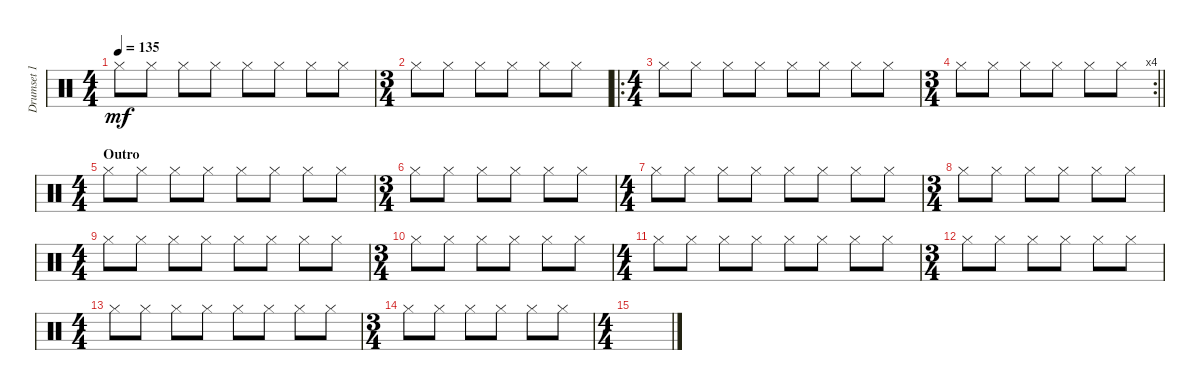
\track ("Drumset 1" "Drumset 1") {instrument percussion}
\staff {score}
\articulation defaults
\ts (4 4)
\tempo 135
\clef neutral
\ks c "Hi-Hat (closed)".8{dy mf} "Hi-Hat (closed)".8 "Hi-Hat (closed)".8 "Hi-Hat (closed)".8 "Hi-Hat (closed)".8 "Hi-Hat (closed)".8 "Hi-Hat (closed)".8 "Hi-Hat (closed)".8
|
\ts (3 4)
"Hi-Hat (closed)".8 "Hi-Hat (closed)".8 "Hi-Hat (closed)".8 "Hi-Hat (closed)".8 "Hi-Hat (closed)".8 "Hi-Hat (closed)".8 |
\ro
\ts (4 4)
"Hi-Hat (closed)".8 "Hi-Hat (closed)".8 "Hi-Hat (closed)".8 "Hi-Hat (closed)".8 "Hi-Hat (closed)".8 "Hi-Hat (closed)".8 "Hi-Hat (closed)".8 "Hi-Hat (closed)".8 |
\rc 4
\ts (3 4)
\barLineRight lightlight "Hi-Hat (closed)".8 "Hi-Hat (closed)".8 "Hi-Hat (closed)".8 "Hi-Hat (closed)".8 "Hi-Hat (closed)".8 "Hi-Hat (closed)".8
|
\ts (4 4)
\section ("" "Outro")
"Hi-Hat (closed)".8 "Hi-Hat (closed)".8 "Hi-Hat (closed)".8 "Hi-Hat (closed)".8 "Hi-Hat (closed)".8 "Hi-Hat (closed)".8 "Hi-Hat (closed)".8 "Hi-Hat (closed)".8 |
\ts (3 4)
"Hi-Hat (closed)".8 "Hi-Hat (closed)".8 "Hi-Hat (closed)".8 "Hi-Hat (closed)".8 "Hi-Hat (closed)".8 "Hi-Hat (closed)".8 |
\ts (4 4)
"Hi-Hat (closed)".8 "Hi-Hat (closed)".8 "Hi-Hat (closed)".8 "Hi-Hat (closed)".8 "Hi-Hat (closed)".8 "Hi-Hat (closed)".8 "Hi-Hat (closed)".8 "Hi-Hat (closed)".8 |
\ts (3 4)
"Hi-Hat (closed)".8 "Hi-Hat (closed)".8 "Hi-Hat (closed)".8 "Hi-Hat (closed)".8 "Hi-Hat (closed)".8 "Hi-Hat (closed)".8 |
\ts (4 4)
"Hi-Hat (closed)".8 "Hi-Hat (closed)".8 "Hi-Hat (closed)".8 "Hi-Hat (closed)".8 "Hi-Hat (closed)".8 "Hi-Hat (closed)".8 "Hi-Hat (closed)".8 "Hi-Hat (closed)".8 |
\ts (3 4)
"Hi-Hat (closed)".8 "Hi-Hat (closed)".8 "Hi-Hat (closed)".8 "Hi-Hat (closed)".8 "Hi-Hat (closed)".8 "Hi-Hat (closed)".8 |
\ts (4 4)
"Hi-Hat (closed)".8 "Hi-Hat (closed)".8 "Hi-Hat (closed)".8 "Hi-Hat (closed)".8 "Hi-Hat (closed)".8 "Hi-Hat (closed)".8 "Hi-Hat (closed)".8 "Hi-Hat (closed)".8 |
\ts (3 4)
"Hi-Hat (closed)".8 "Hi-Hat (closed)".8 "Hi-Hat (closed)".8 "Hi-Hat (closed)".8 "Hi-Hat (closed)".8 "Hi-Hat (closed)".8 |
\ts (4 4)
"Hi-Hat (closed)".8 "Hi-Hat (closed)".8 "Hi-Hat (closed)".8 "Hi-Hat (closed)".8 "Hi-Hat (closed)".8 "Hi-Hat (closed)".8 "Hi-Hat (closed)".8 "Hi-Hat (closed)".8 |
\ts (3 4)
"Hi-Hat (closed)".8 "Hi-Hat (closed)".8 "Hi-Hat (closed)".8 "Hi-Hat (closed)".8 "Hi-Hat (closed)".8 "Hi-Hat (closed)".8 |
\ts (4 4)
